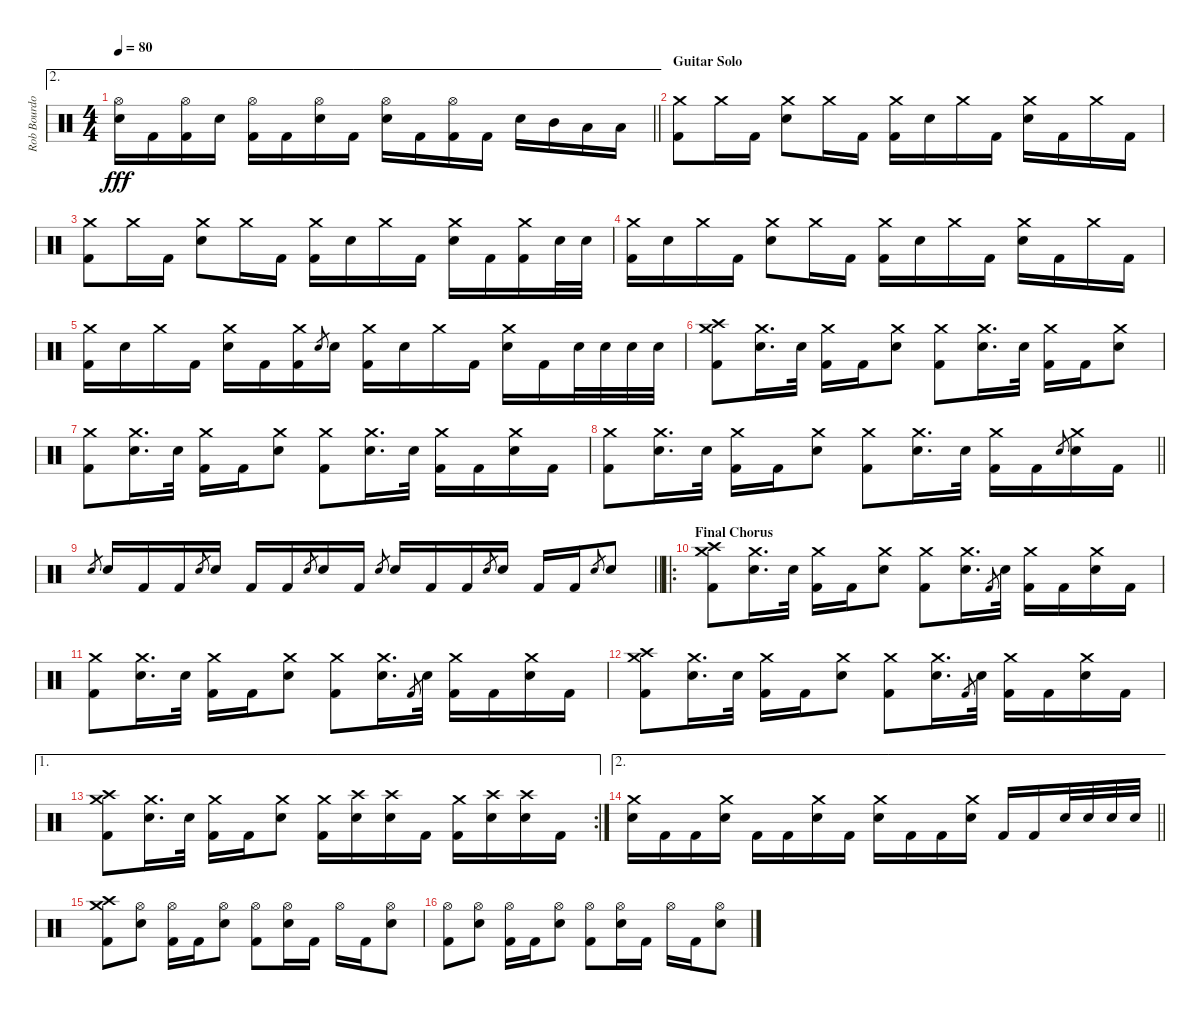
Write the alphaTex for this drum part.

\track ("Rob Bourdon (Batteria)" "Rob Bourdo") {instrument percussion}
\staff {score}
\articulation defaults
\ae 2
\ts (4 4)
\tempo 80
\clef neutral
\barLineRight lightlight
\ks c
("Hi-Hat (open)" "Electric Snare (hit)").16{dy fff} "Kick (hit) 2".16 ("Hi-Hat (open)" "Kick (hit) 2").16 "Electric Snare (hit)".16 ("Hi-Hat (open)" "Kick (hit) 2").16 "Kick (hit) 2".16 ("Hi-Hat (open)" "Electric Snare (hit)").16 "Kick (hit) 2".16 ("Hi-Hat (open)" "Electric Snare (hit)").16 "Kick (hit) 2".16 ("Hi-Hat (open)" "Kick (hit) 2").16 "Kick (hit) 2".16 "Electric Snare (hit)".16 "Mid Tom (hit)".16 "Low Tom (hit)".16 "Low Tom (hit)".16 |
\section ("" "Guitar Solo")
("Crash medium (hit)" "Kick (hit) 2").8 "Crash medium (hit)".16 "Kick (hit) 2".16 ("Crash medium (hit)" "Electric Snare (hit)").8 "Crash medium (hit)".16 "Kick (hit) 2".16 ("Crash medium (hit)" "Kick (hit) 2").16 "Electric Snare (hit)".16 "Crash medium (hit)".16 "Kick (hit) 2".16 ("Crash medium (hit)" "Electric Snare (hit)").16 "Kick (hit) 2".16 "Crash medium (hit)".16 "Kick (hit) 2".16 |
("Crash medium (hit)" "Kick (hit) 2").8 "Crash medium (hit)".16 "Kick (hit) 2".16 ("Crash medium (hit)" "Electric Snare (hit)").8 "Crash medium (hit)".16 "Kick (hit) 2".16 ("Crash medium (hit)" "Kick (hit) 2").16 "Electric Snare (hit)".16 "Crash medium (hit)".16 "Kick (hit) 2".16 ("Crash medium (hit)" "Electric Snare (hit)").16 "Kick (hit) 2".16 ("Crash medium (hit)" "Kick (hit) 2").16 "Electric Snare (hit)".32 "Electric Snare (hit)".32 |
("Crash medium (hit)" "Kick (hit) 2").16 "Electric Snare (hit)".16 "Crash medium (hit)".16 "Kick (hit) 2".16 ("Crash medium (hit)" "Electric Snare (hit)").8 "Crash medium (hit)".16 "Kick (hit) 2".16 ("Crash medium (hit)" "Kick (hit) 2").16 "Electric Snare (hit)".16 "Crash medium (hit)".16 "Kick (hit) 2".16 ("Crash medium (hit)" "Electric Snare (hit)").16 "Kick (hit) 2".16 "Crash medium (hit)".16 "Kick (hit) 2".16 |
("Crash medium (hit)" "Kick (hit) 2").16 "Electric Snare (hit)".16 "Crash medium (hit)".16 "Kick (hit) 2".16 ("Crash medium (hit)" "Electric Snare (hit)").16 "Kick (hit) 2".16 ("Crash medium (hit)" "Kick (hit) 2").16 "Electric Snare (hit)".8{gr} "Electric Snare (hit)".16 ("Crash medium (hit)" "Kick (hit) 2").16 "Electric Snare (hit)".16 "Crash medium (hit)".16 "Kick (hit) 2".16 ("Crash medium (hit)" "Electric Snare (hit)").16 "Kick (hit) 2".16 "Electric Snare (hit)".32 "Electric Snare (hit)".32 "Electric Snare (hit)".32 "Electric Snare (hit)".32 |
("Crash high (hit)" "Crash medium (hit)" "Kick (hit) 2").8 ("Crash medium (hit)" "Electric Snare (hit)").16{d} "Electric Snare (hit)".32 ("Crash medium (hit)" "Kick (hit) 2").16 "Kick (hit) 2".16 ("Crash medium (hit)" "Electric Snare (hit)").8 ("Crash medium (hit)" "Kick (hit) 2").8 ("Crash medium (hit)" "Electric Snare (hit)").16{d} "Electric Snare (hit)".32 ("Crash medium (hit)" "Kick (hit) 2").16 "Kick (hit) 2".16 ("Crash medium (hit)" "Electric Snare (hit)").8 |
("Crash medium (hit)" "Kick (hit) 2").8 ("Crash medium (hit)" "Electric Snare (hit)").16{d} "Electric Snare (hit)".32 ("Crash medium (hit)" "Kick (hit) 2").16 "Kick (hit) 2".16 ("Crash medium (hit)" "Electric Snare (hit)").8 ("Crash medium (hit)" "Kick (hit) 2").8 ("Crash medium (hit)" "Electric Snare (hit)").16{d} "Electric Snare (hit)".32 ("Crash medium (hit)" "Kick (hit) 2").16 "Kick (hit) 2".16 ("Crash medium (hit)" "Electric Snare (hit)").16 "Kick (hit) 2".16 |
\barLineRight lightlight
("Crash medium (hit)" "Kick (hit) 2").8 ("Crash medium (hit)" "Electric Snare (hit)").16{d} "Electric Snare (hit)".32 ("Crash medium (hit)" "Kick (hit) 2").16 "Kick (hit) 2".16 ("Crash medium (hit)" "Electric Snare (hit)").8 ("Crash medium (hit)" "Kick (hit) 2").8 ("Crash medium (hit)" "Electric Snare (hit)").16{d} "Electric Snare (hit)".32 ("Crash medium (hit)" "Kick (hit) 2").16 "Kick (hit) 2".16 "Electric Snare (hit)"{h}.8{gr} ("Crash medium (hit)" "Electric Snare (hit)").16 "Kick (hit) 2".16 |
\barLineRight lightlight "Electric Snare (hit)".8{gr} "Electric Snare (hit)".16 "Kick (hit) 2".16 "Kick (hit) 2".16 "Electric Snare (hit)".8{gr} "Electric Snare (hit)".16 "Kick (hit) 2".16 "Kick (hit) 2".16 "Electric Snare (hit)".8{gr} "Electric Snare (hit)".16 "Kick (hit) 2".16 "Electric Snare (hit)".8{gr} "Electric Snare (hit)".16 "Kick (hit) 2".16 "Kick (hit) 2".16 "Electric Snare (hit)".8{gr} "Electric Snare (hit)".16 "Kick (hit) 2".16 "Kick (hit) 2".16 "Electric Snare (hit)".8{gr} "Electric Snare (hit)".8
|
\ro
\section ("" "Final Chorus")
("Crash high (hit)" "Crash medium (hit)" "Kick (hit) 2").8 ("Crash medium (hit)" "Electric Snare (hit)").16{d} "Electric Snare (hit)".32 ("Crash medium (hit)" "Kick (hit) 2").16 "Kick (hit) 2".16 ("Crash medium (hit)" "Electric Snare (hit)").8 ("Crash medium (hit)" "Kick (hit) 2").8 ("Crash medium (hit)" "Electric Snare (hit)").16{d} "Kick (hit) 2".8{gr} "Electric Snare (hit)".32 ("Crash medium (hit)" "Kick (hit) 2").16 "Kick (hit) 2".16 ("Crash medium (hit)" "Electric Snare (hit)").16 "Kick (hit) 2".16 |
("Crash medium (hit)" "Kick (hit) 2").8 ("Crash medium (hit)" "Electric Snare (hit)").16{d} "Electric Snare (hit)".32 ("Crash medium (hit)" "Kick (hit) 2").16 "Kick (hit) 2".16 ("Crash medium (hit)" "Electric Snare (hit)").8 ("Crash medium (hit)" "Kick (hit) 2").8 ("Crash medium (hit)" "Electric Snare (hit)").16{d} "Kick (hit) 2".8{gr} "Electric Snare (hit)".32 ("Crash medium (hit)" "Kick (hit) 2").16 "Kick (hit) 2".16 ("Crash medium (hit)" "Electric Snare (hit)").16 "Kick (hit) 2".16 |
("Crash high (hit)" "Crash medium (hit)" "Kick (hit) 2").8 ("Crash medium (hit)" "Electric Snare (hit)").16{d} "Electric Snare (hit)".32 ("Crash medium (hit)" "Kick (hit) 2").16 "Kick (hit) 2".16 ("Crash medium (hit)" "Electric Snare (hit)").8 ("Crash medium (hit)" "Kick (hit) 2").8 ("Crash medium (hit)" "Electric Snare (hit)").16{d} "Kick (hit) 2".8{gr} "Electric Snare (hit)".32 ("Crash medium (hit)" "Kick (hit) 2").16 "Kick (hit) 2".16 ("Crash medium (hit)" "Electric Snare (hit)").16 "Kick (hit) 2".16 |
\ae 1
\rc 2
("Crash high (hit)" "Crash medium (hit)" "Kick (hit) 2").8 ("Crash medium (hit)" "Electric Snare (hit)").16{d} "Electric Snare (hit)".32 ("Crash medium (hit)" "Kick (hit) 2").16 "Kick (hit) 2".16 ("Crash medium (hit)" "Electric Snare (hit)").8 ("Crash medium (hit)" "Kick (hit) 2").16 ("Crash high (hit)" "Electric Snare (hit)").16 ("Crash high (hit)" "Electric Snare (hit)").16 "Kick (hit) 2".16 ("Crash medium (hit)" "Kick (hit) 2").16 ("Crash high (hit)" "Electric Snare (hit)").16 ("Crash high (hit)" "Electric Snare (hit)").16 "Kick (hit) 2".16 |
\ae 2
\barLineRight lightlight
("Crash medium (hit)" "Electric Snare (hit)").16 "Kick (hit) 2".16 "Kick (hit) 2".16 ("Crash medium (hit)" "Electric Snare (hit)").16 "Kick (hit) 2".16 "Kick (hit) 2".16 ("Crash medium (hit)" "Electric Snare (hit)").16 "Kick (hit) 2".16 ("Crash medium (hit)" "Electric Snare (hit)").16 "Kick (hit) 2".16 "Kick (hit) 2".16 ("Crash medium (hit)" "Electric Snare (hit)").16 "Kick (hit) 2".16 "Kick (hit) 2".16 "Electric Snare (hit)".32 "Electric Snare (hit)".32 "Electric Snare (hit)".32 "Electric Snare (hit)".32 |
("Crash medium (hit)" "Crash high (hit)" "Kick (hit) 2").8 ("Hi-Hat (open)" "Electric Snare (hit)").8 ("Hi-Hat (open)" "Kick (hit) 2").16 "Kick (hit) 2".16 ("Hi-Hat (open)" "Electric Snare (hit)").8 ("Hi-Hat (open)" "Kick (hit) 2").8 ("Hi-Hat (open)" "Electric Snare (hit)").16 "Kick (hit) 2".16 "Hi-Hat (open)".16 "Kick (hit) 2".16 ("Hi-Hat (open)" "Electric Snare (hit)").8 |
("Hi-Hat (open)" "Kick (hit) 2").8 ("Hi-Hat (open)" "Electric Snare (hit)").8 ("Hi-Hat (open)" "Kick (hit) 2").16 "Kick (hit) 2".16 ("Hi-Hat (open)" "Electric Snare (hit)").8 ("Hi-Hat (open)" "Kick (hit) 2").8 ("Hi-Hat (open)" "Electric Snare (hit)").16 "Kick (hit) 2".16 "Hi-Hat (open)".16 "Kick (hit) 2".16 ("Hi-Hat (open)" "Electric Snare (hit)").8
